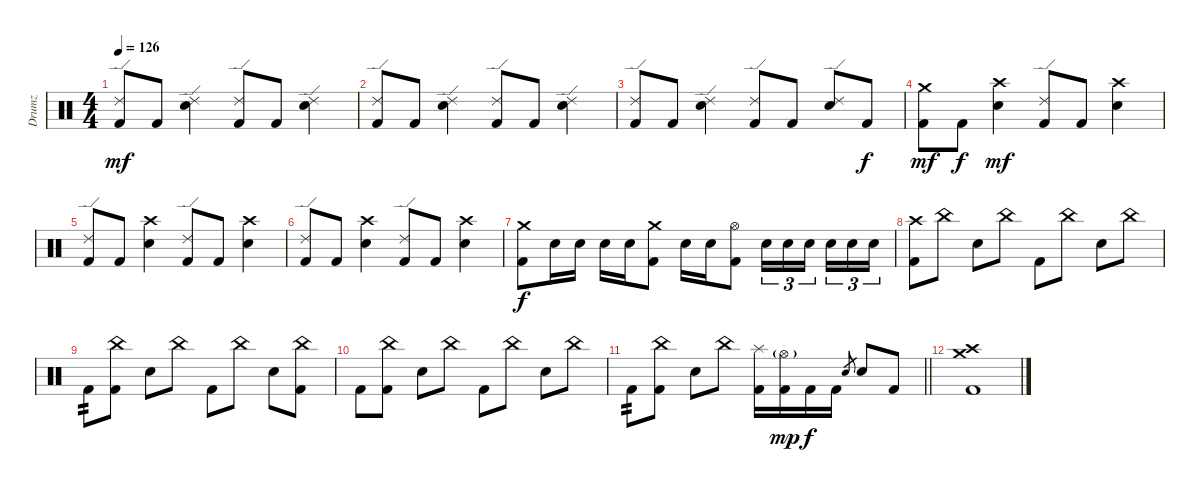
\track ("Drumz" "Drumz") {instrument percussion}
\staff {score}
\articulation defaults
\ts (4 4)
\tempo 126
\clef neutral
\ks c
("Ride (edge) 2" "Kick (hit) 2").8{dy mf} "Kick (hit) 2".8 ("Ride (edge) 2" "Snare (hit) 2").4 ("Ride (edge) 2" "Kick (hit) 2").8 "Kick (hit) 2".8 ("Ride (edge) 2" "Snare (hit) 2").4 |
("Ride (edge) 2" "Kick (hit) 2").8 "Kick (hit) 2".8 ("Ride (edge) 2" "Snare (hit) 2").4 ("Ride (edge) 2" "Kick (hit) 2").8 "Kick (hit) 2".8 ("Ride (edge) 2" "Snare (hit) 2").4 |
("Ride (edge) 2" "Kick (hit) 2").8 "Kick (hit) 2".8 ("Ride (edge) 2" "Snare (hit) 2").4 ("Ride (edge) 2" "Kick (hit) 2").8 "Kick (hit) 2".8 ("Ride (edge) 2" "Snare (hit) 2").8 "Kick (hit) 2".8{dy f} |
("Crash medium (hit)" "Kick (hit) 2").8{dy mf} "Kick (hit) 2".8{dy f} ("Crash high (hit)" "Snare (hit) 2").4{dy mf} ("Ride (edge) 2" "Kick (hit) 2").8 "Kick (hit) 2".8 ("Crash high (hit)" "Snare (hit) 2").4 |
("Ride (edge) 2" "Kick (hit) 2").8 "Kick (hit) 2".8 ("Crash high (hit)" "Snare (hit) 2").4 ("Ride (edge) 2" "Kick (hit) 2").8 "Kick (hit) 2".8 ("Crash high (hit)" "Snare (hit) 2").4 |
("Ride (edge) 2" "Kick (hit) 2").8 "Kick (hit) 2".8 ("Crash high (hit)" "Snare (hit) 2").4 ("Ride (edge) 2" "Kick (hit) 2").8 "Kick (hit) 2".8 ("Crash high (hit)" "Snare (hit) 2").4 |
("Crash medium (hit)" "Kick (hit) 2").8{dy f} "Snare (hit) 2".16 "Snare (hit) 2".16 "Snare (hit) 2".16 "Snare (hit) 2".16 ("Crash medium (hit)" "Kick (hit) 2").8 "Snare (hit) 2".16 "Snare (hit) 2".16 ("Hi-Hat (open)" "Kick (hit) 2").8 "Snare (hit) 2".16{tu (3 2)} "Snare (hit) 2".16{tu (3 2)} "Snare (hit) 2".16{tu (3 2) beam splitsecondary} "Snare (hit) 2".16{tu (3 2)} "Snare (hit) 2".16{tu (3 2)} "Snare (hit) 2".16{tu (3 2)} |
("Crash high (hit)" "Kick (hit) 2").8 "China (hit)".8 "Snare (hit) 2".8 "China (hit)".8 "Kick (hit) 2".8 "China (hit)".8 "Snare (hit) 2".8 "China (hit)".8 |
"Kick (hit) 2".8{tp 2} ("China (hit)" "Kick (hit) 2").8 "Snare (hit) 2".8 "China (hit)".8 "Kick (hit) 2".8 "China (hit)".8 "Snare (hit) 2".8 ("China (hit)" "Kick (hit) 2").8 |
"Kick (hit) 2".8 ("China (hit)" "Kick (hit) 2").8 "Snare (hit) 2".8 "China (hit)".8 "Kick (hit) 2".8 "China (hit)".8 "Snare (hit) 2".8 "China (hit)".8 |
\barLineRight lightlight "Kick (hit) 2".8{tp 2}
("China (hit)" "Kick (hit) 2").8 "Snare (hit) 2".8 "China (hit)".8 ("Splash (hit)" "Kick (hit) 2").16 ("Hi-Hat (open)"{g} "Kick (hit) 2").16{dy mp} "Kick (hit) 2".16{dy f} "Kick (hit) 2".16 "Snare (hit) 2".8{gr} "Snare (hit) 2".8 "Kick (hit) 2".8 |
("Crash medium (hit)" "Crash high (hit)" "Kick (hit) 2").1
